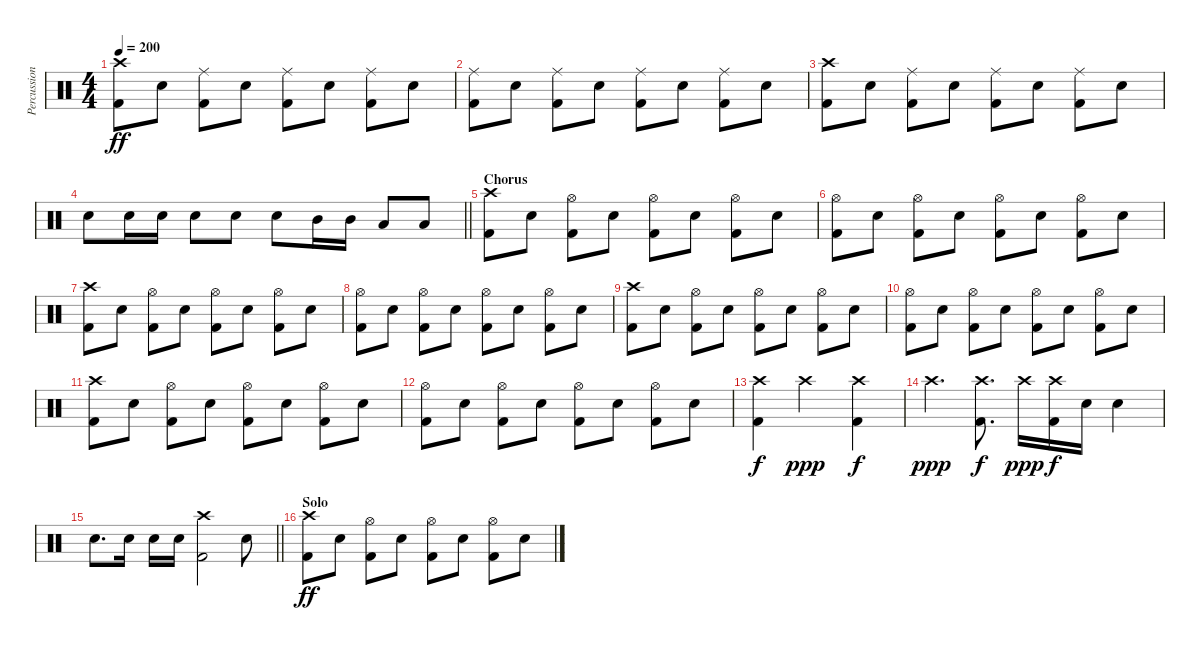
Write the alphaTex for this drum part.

\track ("Percussion" "Percussion") {instrument percussion}
\staff {score}
\articulation defaults
\ts (4 4)
\tempo 200
\clef neutral
\ks c
("Crash high (hit)" "Kick (hit) 2").8{dy ff} "Snare (hit) 2".8 ("Ride (middle)" "Kick (hit) 2").8 "Snare (hit) 2".8 ("Ride (middle)" "Kick (hit) 2").8 "Snare (hit) 2".8 ("Ride (middle)" "Kick (hit) 2").8 "Snare (hit) 2".8 |
("Ride (middle)" "Kick (hit) 2").8 "Snare (hit) 2".8 ("Ride (middle)" "Kick (hit) 2").8 "Snare (hit) 2".8 ("Ride (middle)" "Kick (hit) 2").8 "Snare (hit) 2".8 ("Ride (middle)" "Kick (hit) 2").8 "Snare (hit) 2".8 |
("Crash high (hit)" "Kick (hit) 2").8 "Snare (hit) 2".8 ("Ride (middle)" "Kick (hit) 2").8 "Snare (hit) 2".8 ("Ride (middle)" "Kick (hit) 2").8 "Snare (hit) 2".8 ("Ride (middle)" "Kick (hit) 2").8 "Snare (hit) 2".8 |
\barLineRight lightlight "Snare (hit) 2".8 "Snare (hit) 2".16 "Snare (hit) 2".16 "Snare (hit) 2".8 "Snare (hit) 2".8 "Snare (hit) 2".8 "Mid Tom (hit)".16 "Mid Tom (hit)".16 "Low Tom (hit)".8 "Low Tom (hit)".8
|
\section ("" "Chorus")
("Crash high (hit)" "Kick (hit) 2").8 "Snare (hit) 2".8 ("Hi-Hat (open)" "Kick (hit) 2").8 "Snare (hit) 2".8 ("Hi-Hat (open)" "Kick (hit) 2").8 "Snare (hit) 2".8 ("Hi-Hat (open)" "Kick (hit) 2").8 "Snare (hit) 2".8 |
("Hi-Hat (open)" "Kick (hit) 2").8 "Snare (hit) 2".8 ("Hi-Hat (open)" "Kick (hit) 2").8 "Snare (hit) 2".8 ("Hi-Hat (open)" "Kick (hit) 2").8 "Snare (hit) 2".8 ("Hi-Hat (open)" "Kick (hit) 2").8 "Snare (hit) 2".8 |
("Crash high (hit)" "Kick (hit) 2").8 "Snare (hit) 2".8 ("Hi-Hat (open)" "Kick (hit) 2").8 "Snare (hit) 2".8 ("Hi-Hat (open)" "Kick (hit) 2").8 "Snare (hit) 2".8 ("Hi-Hat (open)" "Kick (hit) 2").8 "Snare (hit) 2".8 |
("Hi-Hat (open)" "Kick (hit) 2").8 "Snare (hit) 2".8 ("Hi-Hat (open)" "Kick (hit) 2").8 "Snare (hit) 2".8 ("Hi-Hat (open)" "Kick (hit) 2").8 "Snare (hit) 2".8 ("Hi-Hat (open)" "Kick (hit) 2").8 "Snare (hit) 2".8 |
("Crash high (hit)" "Kick (hit) 2").8 "Snare (hit) 2".8 ("Hi-Hat (open)" "Kick (hit) 2").8 "Snare (hit) 2".8 ("Hi-Hat (open)" "Kick (hit) 2").8 "Snare (hit) 2".8 ("Hi-Hat (open)" "Kick (hit) 2").8 "Snare (hit) 2".8 |
("Hi-Hat (open)" "Kick (hit) 2").8 "Snare (hit) 2".8 ("Hi-Hat (open)" "Kick (hit) 2").8 "Snare (hit) 2".8 ("Hi-Hat (open)" "Kick (hit) 2").8 "Snare (hit) 2".8 ("Hi-Hat (open)" "Kick (hit) 2").8 "Snare (hit) 2".8 |
("Crash high (hit)" "Kick (hit) 2").8 "Snare (hit) 2".8 ("Hi-Hat (open)" "Kick (hit) 2").8 "Snare (hit) 2".8 ("Hi-Hat (open)" "Kick (hit) 2").8 "Snare (hit) 2".8 ("Hi-Hat (open)" "Kick (hit) 2").8 "Snare (hit) 2".8 |
("Hi-Hat (open)" "Kick (hit) 2").8 "Snare (hit) 2".8 ("Hi-Hat (open)" "Kick (hit) 2").8 "Snare (hit) 2".8 ("Hi-Hat (open)" "Kick (hit) 2").8 "Snare (hit) 2".8 ("Hi-Hat (open)" "Kick (hit) 2").8 "Snare (hit) 2".8 |
("Crash high (hit)" "Kick (hit) 2").4{dy f} "Crash high (hit)".2{dy ppp} ("Crash high (hit)" "Kick (hit) 2").4{dy f} |
"Crash high (hit)".4{d dy ppp} ("Crash high (hit)" "Kick (hit) 2").8{d dy f} "Crash high (hit)".16{dy ppp} ("Crash high (hit)" "Kick (hit) 2").16{dy f} "Snare (hit) 2".16 "Snare (hit) 2".4 |
\barLineRight lightlight "Snare (hit) 2".8{d} "Snare (hit) 2".16 "Snare (hit) 2".16 "Snare (hit) 2".16
("Crash high (hit)" "Kick (hit) 2").2 "Snare (hit) 2".8 |
\section ("" "Solo")
("Crash high (hit)" "Kick (hit) 2").8{dy ff} "Snare (hit) 2".8 ("Hi-Hat (open)" "Kick (hit) 2").8 "Snare (hit) 2".8 ("Hi-Hat (open)" "Kick (hit) 2").8 "Snare (hit) 2".8 ("Hi-Hat (open)" "Kick (hit) 2").8 "Snare (hit) 2".8
